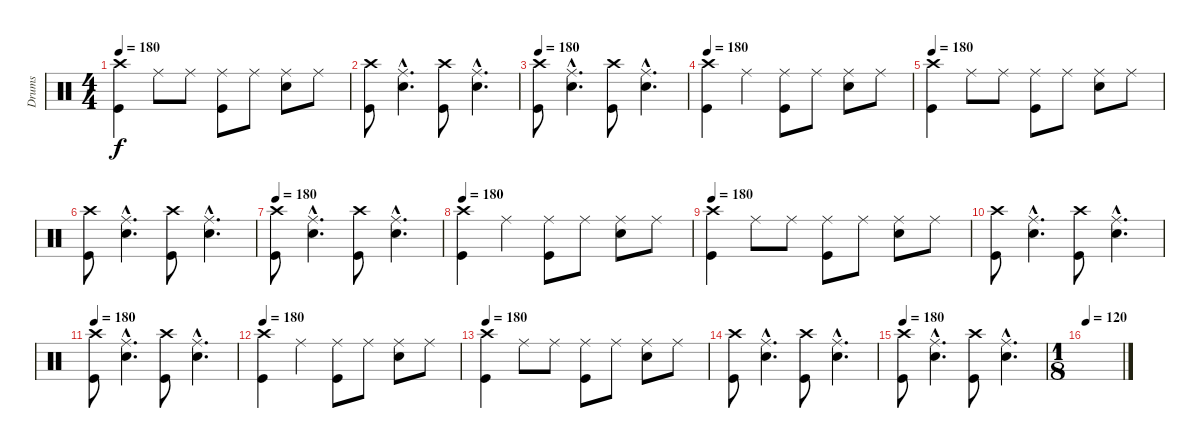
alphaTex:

\track ("Drums" "Drums") {instrument percussion}
\staff {score}
\articulation defaults
\ts (4 4)
\tempo 180
\clef neutral
\ks c
("Crash high (hit)" "Kick (hit)").4{dy f} "Ride (middle)".8 "Ride (middle)".8 ("Ride (middle)" "Kick (hit)").8 "Ride (middle)".8 ("Ride (middle)" "Snare (hit) 2").8 "Ride (middle)".8 |
("Crash high (hit)" "Kick (hit)").8 ("Ride (middle)"{hac} "Snare (hit) 2"{hac}).4{d} ("Crash high (hit)" "Kick (hit)").8 ("Ride (middle)"{hac} "Snare (hit) 2"{hac}).4{d} |
\tempo 180
("Crash high (hit)" "Kick (hit)").8 ("Ride (middle)"{hac} "Snare (hit) 2"{hac}).4{d} ("Crash high (hit)" "Kick (hit)").8 ("Ride (middle)"{hac} "Snare (hit) 2"{hac}).4{d} |
\tempo 180
("Crash high (hit)" "Kick (hit)").4 "Ride (middle)".4 ("Ride (middle)" "Kick (hit)").8 "Ride (middle)".8 ("Ride (middle)" "Snare (hit) 2").8 "Ride (middle)".8 |
\tempo 180
("Crash high (hit)" "Kick (hit)").4 "Ride (middle)".8 "Ride (middle)".8 ("Ride (middle)" "Kick (hit)").8 "Ride (middle)".8 ("Ride (middle)" "Snare (hit) 2").8 "Ride (middle)".8 |
("Crash high (hit)" "Kick (hit)").8 ("Ride (middle)"{hac} "Snare (hit) 2"{hac}).4{d} ("Crash high (hit)" "Kick (hit)").8 ("Ride (middle)"{hac} "Snare (hit) 2"{hac}).4{d} |
\tempo 180
("Crash high (hit)" "Kick (hit)").8 ("Ride (middle)"{hac} "Snare (hit) 2"{hac}).4{d} ("Crash high (hit)" "Kick (hit)").8 ("Ride (middle)"{hac} "Snare (hit) 2"{hac}).4{d} |
\tempo 180
("Crash high (hit)" "Kick (hit)").4 "Ride (middle)".4 ("Ride (middle)" "Kick (hit)").8 "Ride (middle)".8 ("Ride (middle)" "Snare (hit) 2").8 "Ride (middle)".8 |
\tempo 180
("Crash high (hit)" "Kick (hit)").4 "Ride (middle)".8 "Ride (middle)".8 ("Ride (middle)" "Kick (hit)").8 "Ride (middle)".8 ("Ride (middle)" "Snare (hit) 2").8 "Ride (middle)".8 |
("Crash high (hit)" "Kick (hit)").8 ("Ride (middle)"{hac} "Snare (hit) 2"{hac}).4{d} ("Crash high (hit)" "Kick (hit)").8 ("Ride (middle)"{hac} "Snare (hit) 2"{hac}).4{d} |
\tempo 180
("Crash high (hit)" "Kick (hit)").8 ("Ride (middle)"{hac} "Snare (hit) 2"{hac}).4{d} ("Crash high (hit)" "Kick (hit)").8 ("Ride (middle)"{hac} "Snare (hit) 2"{hac}).4{d} |
\tempo 180
("Crash high (hit)" "Kick (hit)").4 "Ride (middle)".4 ("Ride (middle)" "Kick (hit)").8 "Ride (middle)".8 ("Ride (middle)" "Snare (hit) 2").8 "Ride (middle)".8 |
\tempo 180
("Crash high (hit)" "Kick (hit)").4 "Ride (middle)".8 "Ride (middle)".8 ("Ride (middle)" "Kick (hit)").8 "Ride (middle)".8 ("Ride (middle)" "Snare (hit) 2").8 "Ride (middle)".8 |
("Crash high (hit)" "Kick (hit)").8 ("Ride (middle)"{hac} "Snare (hit) 2"{hac}).4{d} ("Crash high (hit)" "Kick (hit)").8 ("Ride (middle)"{hac} "Snare (hit) 2"{hac}).4{d} |
\tempo 180
("Crash high (hit)" "Kick (hit)").8 ("Ride (middle)"{hac} "Snare (hit) 2"{hac}).4{d} ("Crash high (hit)" "Kick (hit)").8 ("Ride (middle)"{hac} "Snare (hit) 2"{hac}).4{d} |
\ts (1 8)
\tempo 120
